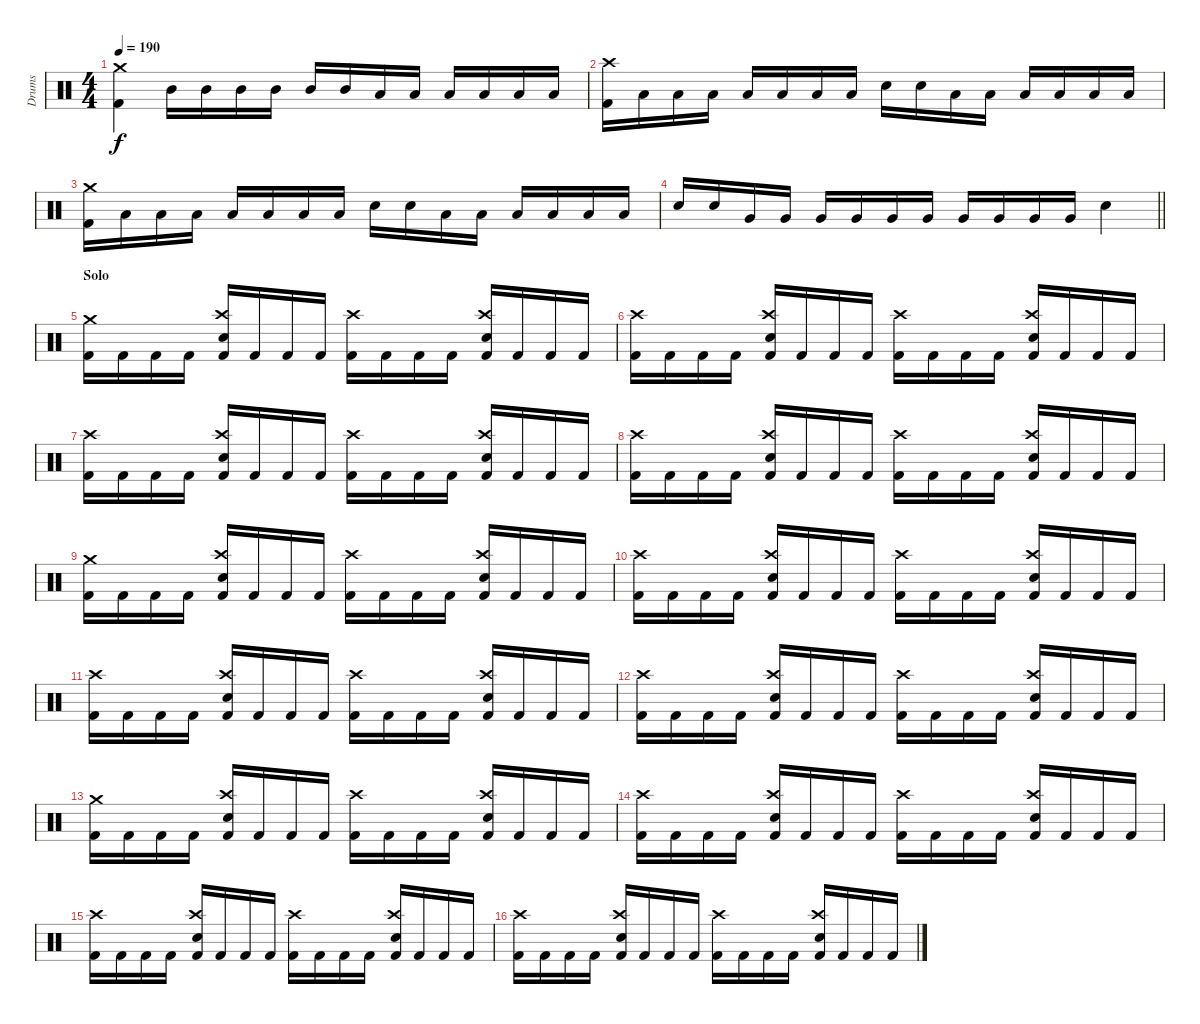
\track ("Drums" "Drums") {instrument percussion}
\staff {score}
\articulation defaults
\ts (4 4)
\tempo 190
\clef neutral
\ks c
("Crash medium (hit)" "Kick (hit) 2").4{dy f} "Mid Tom (hit)".16 "Mid Tom (hit)".16 "Mid Tom (hit)".16 "Mid Tom (hit)".16 "Mid Tom (hit)".16 "Mid Tom (hit)".16 "Low Tom (hit)".16 "Low Tom (hit)".16 "Low Tom (hit)".16 "Low Tom (hit)".16 "Low Tom (hit)".16 "Low Tom (hit)".16 |
("Crash high (hit)" "Kick (hit) 2").16 "Low Tom (hit)".16 "Low Tom (hit)".16 "Low Tom (hit)".16 "Low Tom (hit)".16 "Low Tom (hit)".16 "Low Tom (hit)".16 "Low Tom (hit)".16 "Snare (hit) 2".16 "Snare (hit) 2".16 "Low Tom (hit)".16 "Low Tom (hit)".16 "Low Tom (hit)".16 "Low Tom (hit)".16 "Low Tom (hit)".16 "Low Tom (hit)".16 |
("Crash medium (hit)" "Kick (hit) 2").16 "Low Tom (hit)".16 "Low Tom (hit)".16 "Low Tom (hit)".16 "Low Tom (hit)".16 "Low Tom (hit)".16 "Low Tom (hit)".16 "Low Tom (hit)".16 "Snare (hit) 2".16 "Snare (hit) 2".16 "Low Tom (hit)".16 "Low Tom (hit)".16 "Low Tom (hit)".16 "Low Tom (hit)".16 "Low Tom (hit)".16 "Low Tom (hit)".16 |
\barLineRight lightlight "Snare (hit) 2".16 "Snare (hit) 2".16 "Very Low Tom (hit)".16 "Very Low Tom (hit)".16 "Very Low Tom (hit)".16 "Very Low Tom (hit)".16 "Very Low Tom (hit)".16 "Very Low Tom (hit)".16 "Very Low Tom (hit)".16 "Very Low Tom (hit)".16 "Very Low Tom (hit)".16 "Very Low Tom (hit)".16 "Snare (hit) 2".4
|
\section ("" "Solo")
("Crash medium (hit)" "Kick (hit) 2").16 "Kick (hit) 2".16 "Kick (hit) 2".16 "Kick (hit) 2".16 ("Crash high (hit)" "Snare (hit) 2" "Kick (hit) 2").16 "Kick (hit) 2".16 "Kick (hit) 2".16 "Kick (hit) 2".16 ("Crash high (hit)" "Kick (hit) 2").16 "Kick (hit) 2".16 "Kick (hit) 2".16 "Kick (hit) 2".16 ("Crash high (hit)" "Snare (hit) 2" "Kick (hit) 2").16 "Kick (hit) 2".16 "Kick (hit) 2".16 "Kick (hit) 2".16 |
("Crash high (hit)" "Kick (hit) 2").16 "Kick (hit) 2".16 "Kick (hit) 2".16 "Kick (hit) 2".16 ("Crash high (hit)" "Snare (hit) 2" "Kick (hit) 2").16 "Kick (hit) 2".16 "Kick (hit) 2".16 "Kick (hit) 2".16 ("Crash high (hit)" "Kick (hit) 2").16 "Kick (hit) 2".16 "Kick (hit) 2".16 "Kick (hit) 2".16 ("Crash high (hit)" "Snare (hit) 2" "Kick (hit) 2").16 "Kick (hit) 2".16 "Kick (hit) 2".16 "Kick (hit) 2".16 |
("Crash high (hit)" "Kick (hit) 2").16 "Kick (hit) 2".16 "Kick (hit) 2".16 "Kick (hit) 2".16 ("Crash high (hit)" "Snare (hit) 2" "Kick (hit) 2").16 "Kick (hit) 2".16 "Kick (hit) 2".16 "Kick (hit) 2".16 ("Crash high (hit)" "Kick (hit) 2").16 "Kick (hit) 2".16 "Kick (hit) 2".16 "Kick (hit) 2".16 ("Crash high (hit)" "Snare (hit) 2" "Kick (hit) 2").16 "Kick (hit) 2".16 "Kick (hit) 2".16 "Kick (hit) 2".16 |
("Crash high (hit)" "Kick (hit) 2").16 "Kick (hit) 2".16 "Kick (hit) 2".16 "Kick (hit) 2".16 ("Crash high (hit)" "Snare (hit) 2" "Kick (hit) 2").16 "Kick (hit) 2".16 "Kick (hit) 2".16 "Kick (hit) 2".16 ("Crash high (hit)" "Kick (hit) 2").16 "Kick (hit) 2".16 "Kick (hit) 2".16 "Kick (hit) 2".16 ("Crash high (hit)" "Snare (hit) 2" "Kick (hit) 2").16 "Kick (hit) 2".16 "Kick (hit) 2".16 "Kick (hit) 2".16 |
("Crash medium (hit)" "Kick (hit) 2").16 "Kick (hit) 2".16 "Kick (hit) 2".16 "Kick (hit) 2".16 ("Crash high (hit)" "Snare (hit) 2" "Kick (hit) 2").16 "Kick (hit) 2".16 "Kick (hit) 2".16 "Kick (hit) 2".16 ("Crash high (hit)" "Kick (hit) 2").16 "Kick (hit) 2".16 "Kick (hit) 2".16 "Kick (hit) 2".16 ("Crash high (hit)" "Snare (hit) 2" "Kick (hit) 2").16 "Kick (hit) 2".16 "Kick (hit) 2".16 "Kick (hit) 2".16 |
("Crash high (hit)" "Kick (hit) 2").16 "Kick (hit) 2".16 "Kick (hit) 2".16 "Kick (hit) 2".16 ("Crash high (hit)" "Snare (hit) 2" "Kick (hit) 2").16 "Kick (hit) 2".16 "Kick (hit) 2".16 "Kick (hit) 2".16 ("Crash high (hit)" "Kick (hit) 2").16 "Kick (hit) 2".16 "Kick (hit) 2".16 "Kick (hit) 2".16 ("Crash high (hit)" "Snare (hit) 2" "Kick (hit) 2").16 "Kick (hit) 2".16 "Kick (hit) 2".16 "Kick (hit) 2".16 |
("Crash high (hit)" "Kick (hit) 2").16 "Kick (hit) 2".16 "Kick (hit) 2".16 "Kick (hit) 2".16 ("Crash high (hit)" "Snare (hit) 2" "Kick (hit) 2").16 "Kick (hit) 2".16 "Kick (hit) 2".16 "Kick (hit) 2".16 ("Crash high (hit)" "Kick (hit) 2").16 "Kick (hit) 2".16 "Kick (hit) 2".16 "Kick (hit) 2".16 ("Crash high (hit)" "Snare (hit) 2" "Kick (hit) 2").16 "Kick (hit) 2".16 "Kick (hit) 2".16 "Kick (hit) 2".16 |
("Crash high (hit)" "Kick (hit) 2").16 "Kick (hit) 2".16 "Kick (hit) 2".16 "Kick (hit) 2".16 ("Crash high (hit)" "Snare (hit) 2" "Kick (hit) 2").16 "Kick (hit) 2".16 "Kick (hit) 2".16 "Kick (hit) 2".16 ("Crash high (hit)" "Kick (hit) 2").16 "Kick (hit) 2".16 "Kick (hit) 2".16 "Kick (hit) 2".16 ("Crash high (hit)" "Snare (hit) 2" "Kick (hit) 2").16 "Kick (hit) 2".16 "Kick (hit) 2".16 "Kick (hit) 2".16 |
("Crash medium (hit)" "Kick (hit) 2").16 "Kick (hit) 2".16 "Kick (hit) 2".16 "Kick (hit) 2".16 ("Crash high (hit)" "Snare (hit) 2" "Kick (hit) 2").16 "Kick (hit) 2".16 "Kick (hit) 2".16 "Kick (hit) 2".16 ("Crash high (hit)" "Kick (hit) 2").16 "Kick (hit) 2".16 "Kick (hit) 2".16 "Kick (hit) 2".16 ("Crash high (hit)" "Snare (hit) 2" "Kick (hit) 2").16 "Kick (hit) 2".16 "Kick (hit) 2".16 "Kick (hit) 2".16 |
("Crash high (hit)" "Kick (hit) 2").16 "Kick (hit) 2".16 "Kick (hit) 2".16 "Kick (hit) 2".16 ("Crash high (hit)" "Snare (hit) 2" "Kick (hit) 2").16 "Kick (hit) 2".16 "Kick (hit) 2".16 "Kick (hit) 2".16 ("Crash high (hit)" "Kick (hit) 2").16 "Kick (hit) 2".16 "Kick (hit) 2".16 "Kick (hit) 2".16 ("Crash high (hit)" "Snare (hit) 2" "Kick (hit) 2").16 "Kick (hit) 2".16 "Kick (hit) 2".16 "Kick (hit) 2".16 |
("Crash high (hit)" "Kick (hit) 2").16 "Kick (hit) 2".16 "Kick (hit) 2".16 "Kick (hit) 2".16 ("Crash high (hit)" "Snare (hit) 2" "Kick (hit) 2").16 "Kick (hit) 2".16 "Kick (hit) 2".16 "Kick (hit) 2".16 ("Crash high (hit)" "Kick (hit) 2").16 "Kick (hit) 2".16 "Kick (hit) 2".16 "Kick (hit) 2".16 ("Crash high (hit)" "Snare (hit) 2" "Kick (hit) 2").16 "Kick (hit) 2".16 "Kick (hit) 2".16 "Kick (hit) 2".16 |
("Crash high (hit)" "Kick (hit) 2").16 "Kick (hit) 2".16 "Kick (hit) 2".16 "Kick (hit) 2".16 ("Crash high (hit)" "Snare (hit) 2" "Kick (hit) 2").16 "Kick (hit) 2".16 "Kick (hit) 2".16 "Kick (hit) 2".16 ("Crash high (hit)" "Kick (hit) 2").16 "Kick (hit) 2".16 "Kick (hit) 2".16 "Kick (hit) 2".16 ("Crash high (hit)" "Snare (hit) 2" "Kick (hit) 2").16 "Kick (hit) 2".16 "Kick (hit) 2".16 "Kick (hit) 2".16
